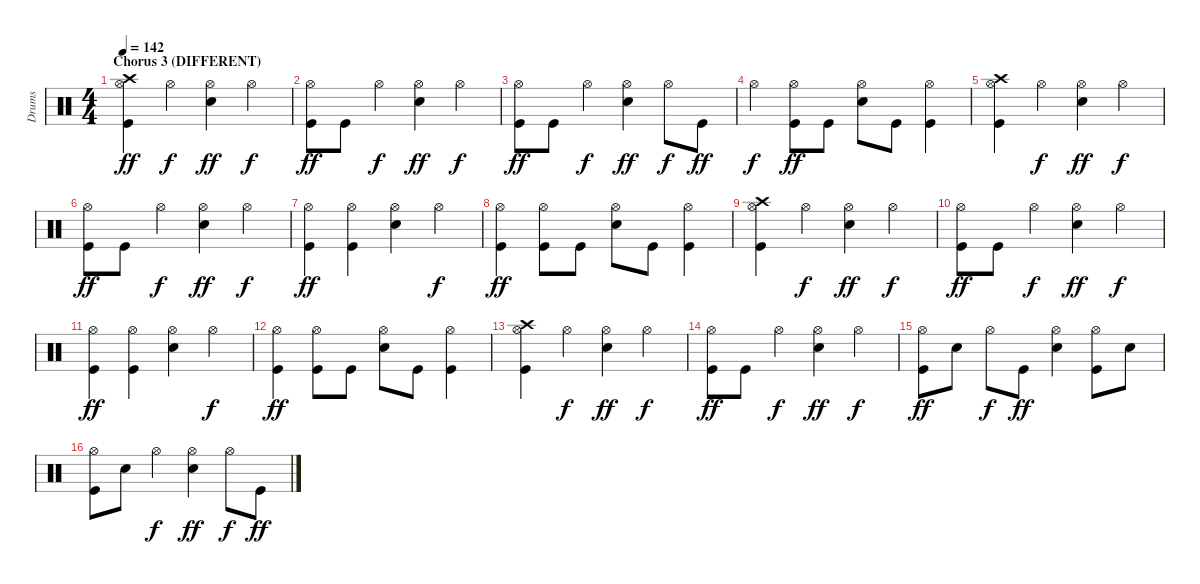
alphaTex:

\track ("Drums" "Drums") {instrument percussion}
\staff {score}
\articulation defaults
\ts (4 4)
\section ("" "Chorus 3 (DIFFERENT)")
\tempo 142
\clef neutral
\ks c
("Hi-Hat (open)" "Crash high (hit)" "Kick (hit)").4{dy ff} "Hi-Hat (open)".4{dy f} ("Hi-Hat (open)" "Snare (hit) 2").4{dy ff} "Hi-Hat (open)".4{dy f} |
("Hi-Hat (open)" "Kick (hit)").8{dy ff} "Kick (hit)".8 "Hi-Hat (open)".4{dy f} ("Hi-Hat (open)" "Snare (hit) 2").4{dy ff} "Hi-Hat (open)".4{dy f} |
("Hi-Hat (open)" "Kick (hit)").8{dy ff} "Kick (hit)".8 "Hi-Hat (open)".4{dy f} ("Hi-Hat (open)" "Snare (hit) 2").4{dy ff} "Hi-Hat (open)".8{dy f} "Kick (hit)".8{dy ff} |
"Hi-Hat (open)".4{dy f} ("Hi-Hat (open)" "Kick (hit)").8{dy ff} "Kick (hit)".8 ("Hi-Hat (open)" "Snare (hit) 2").8 "Kick (hit)".8 ("Hi-Hat (open)" "Kick (hit)").4 |
("Hi-Hat (open)" "Crash high (hit)" "Kick (hit)").4 "Hi-Hat (open)".4{dy f} ("Hi-Hat (open)" "Snare (hit) 2").4{dy ff} "Hi-Hat (open)".4{dy f} |
("Hi-Hat (open)" "Kick (hit)").8{dy ff} "Kick (hit)".8 "Hi-Hat (open)".4{dy f} ("Hi-Hat (open)" "Snare (hit) 2").4{dy ff} "Hi-Hat (open)".4{dy f} |
("Hi-Hat (open)" "Kick (hit)").4{dy ff} ("Hi-Hat (open)" "Kick (hit)").4 ("Hi-Hat (open)" "Snare (hit) 2").4 "Hi-Hat (open)".4{dy f} |
("Hi-Hat (open)" "Kick (hit)").4{dy ff} ("Hi-Hat (open)" "Kick (hit)").8 "Kick (hit)".8 ("Hi-Hat (open)" "Snare (hit) 2").8 "Kick (hit)".8 ("Hi-Hat (open)" "Kick (hit)").4 |
("Hi-Hat (open)" "Crash high (hit)" "Kick (hit)").4 "Hi-Hat (open)".4{dy f} ("Hi-Hat (open)" "Snare (hit) 2").4{dy ff} "Hi-Hat (open)".4{dy f} |
("Hi-Hat (open)" "Kick (hit)").8{dy ff} "Kick (hit)".8 "Hi-Hat (open)".4{dy f} ("Hi-Hat (open)" "Snare (hit) 2").4{dy ff} "Hi-Hat (open)".4{dy f} |
("Hi-Hat (open)" "Kick (hit)").4{dy ff} ("Hi-Hat (open)" "Kick (hit)").4 ("Hi-Hat (open)" "Snare (hit) 2").4 "Hi-Hat (open)".4{dy f} |
("Hi-Hat (open)" "Kick (hit)").4{dy ff} ("Hi-Hat (open)" "Kick (hit)").8 "Kick (hit)".8 ("Hi-Hat (open)" "Snare (hit) 2").8 "Kick (hit)".8 ("Hi-Hat (open)" "Kick (hit)").4 |
("Hi-Hat (open)" "Crash high (hit)" "Kick (hit)").4 "Hi-Hat (open)".4{dy f} ("Hi-Hat (open)" "Snare (hit) 2").4{dy ff} "Hi-Hat (open)".4{dy f} |
("Hi-Hat (open)" "Kick (hit)").8{dy ff} "Kick (hit)".8 "Hi-Hat (open)".4{dy f} ("Hi-Hat (open)" "Snare (hit) 2").4{dy ff} "Hi-Hat (open)".4{dy f} |
("Hi-Hat (open)" "Kick (hit)").8{dy ff} "Snare (hit) 2".8 "Hi-Hat (open)".8{dy f} "Kick (hit)".8{dy ff} ("Hi-Hat (open)" "Snare (hit) 2").4 ("Hi-Hat (open)" "Kick (hit)").8 "Snare (hit) 2".8 |
("Hi-Hat (open)" "Kick (hit)").8 "Snare (hit) 2".8 "Hi-Hat (open)".4{dy f} ("Hi-Hat (open)" "Snare (hit) 2").4{dy ff} "Hi-Hat (open)".8{dy f} "Kick (hit)".8{dy ff}
